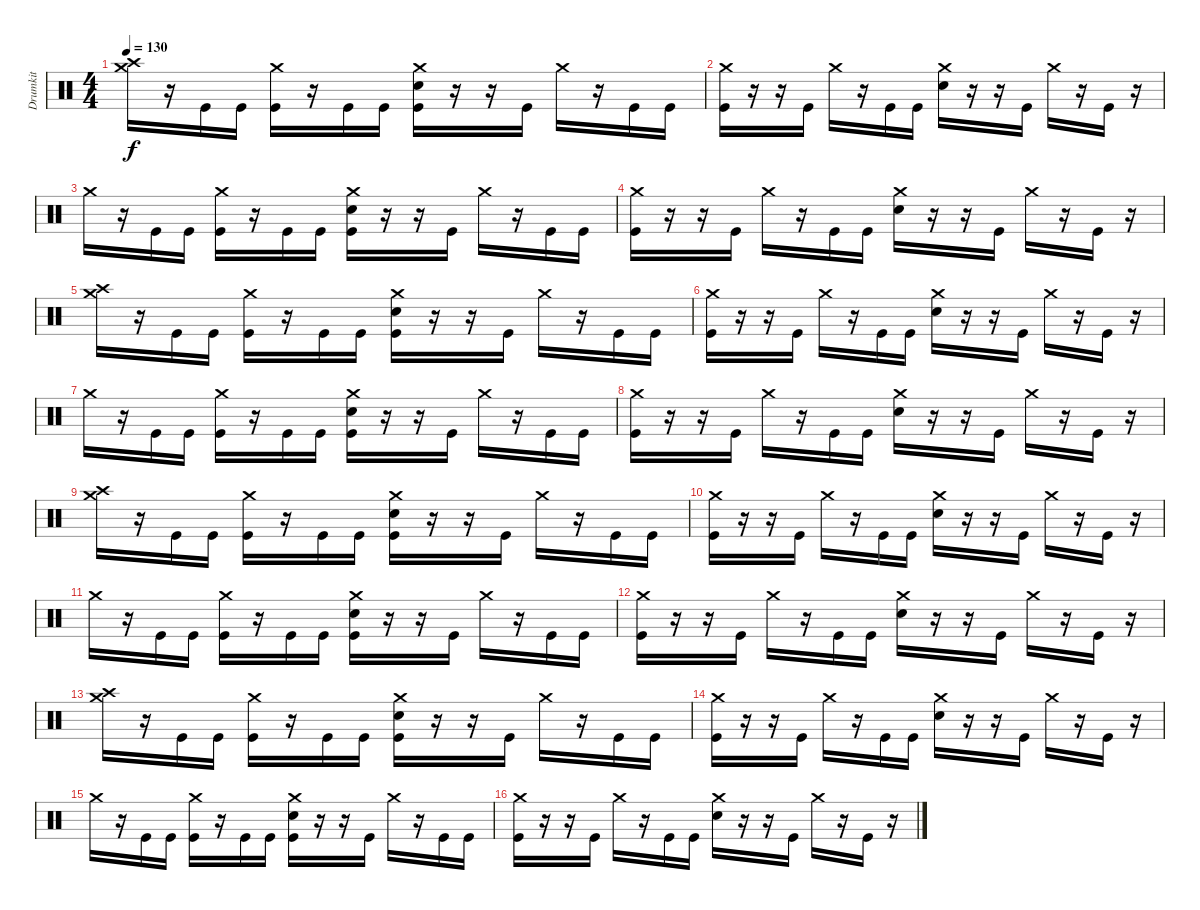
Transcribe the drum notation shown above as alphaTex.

\track ("Drumkit" "Drumkit") {instrument percussion}
\staff {score}
\articulation defaults
\ts (4 4)
\tempo 130
\clef neutral
\ks c
("Crash medium (hit)" "Crash high (hit)").16{dy f} r.16 "Kick (hit)".16 "Kick (hit)".16 ("Crash medium (hit)" "Kick (hit)").16 r.16 "Kick (hit)".16 "Kick (hit)".16 ("Crash medium (hit)" "Snare (hit) 2" "Kick (hit)").16 r.16 r.16 "Kick (hit)".16 "Crash medium (hit)".16 r.16 "Kick (hit)".16 "Kick (hit)".16 |
("Crash medium (hit)" "Kick (hit)").16 r.16 r.16 "Kick (hit)".16 "Crash medium (hit)".16 r.16 "Kick (hit)".16 "Kick (hit)".16 ("Crash medium (hit)" "Snare (hit) 2").16 r.16 r.16 "Kick (hit)".16 "Crash medium (hit)".16 r.16 "Kick (hit)".16 r.16 |
"Crash medium (hit)".16 r.16 "Kick (hit)".16 "Kick (hit)".16 ("Crash medium (hit)" "Kick (hit)").16 r.16 "Kick (hit)".16 "Kick (hit)".16 ("Crash medium (hit)" "Snare (hit) 2" "Kick (hit)").16 r.16 r.16 "Kick (hit)".16 "Crash medium (hit)".16 r.16 "Kick (hit)".16 "Kick (hit)".16 |
("Crash medium (hit)" "Kick (hit)").16 r.16 r.16 "Kick (hit)".16 "Crash medium (hit)".16 r.16 "Kick (hit)".16 "Kick (hit)".16 ("Crash medium (hit)" "Snare (hit) 2").16 r.16 r.16 "Kick (hit)".16 "Crash medium (hit)".16 r.16 "Kick (hit)".16 r.16 |
("Crash medium (hit)" "Crash high (hit)").16 r.16 "Kick (hit)".16 "Kick (hit)".16 ("Crash medium (hit)" "Kick (hit)").16 r.16 "Kick (hit)".16 "Kick (hit)".16 ("Crash medium (hit)" "Snare (hit) 2" "Kick (hit)").16 r.16 r.16 "Kick (hit)".16 "Crash medium (hit)".16 r.16 "Kick (hit)".16 "Kick (hit)".16 |
("Crash medium (hit)" "Kick (hit)").16 r.16 r.16 "Kick (hit)".16 "Crash medium (hit)".16 r.16 "Kick (hit)".16 "Kick (hit)".16 ("Crash medium (hit)" "Snare (hit) 2").16 r.16 r.16 "Kick (hit)".16 "Crash medium (hit)".16 r.16 "Kick (hit)".16 r.16 |
"Crash medium (hit)".16 r.16 "Kick (hit)".16 "Kick (hit)".16 ("Crash medium (hit)" "Kick (hit)").16 r.16 "Kick (hit)".16 "Kick (hit)".16 ("Crash medium (hit)" "Snare (hit) 2" "Kick (hit)").16 r.16 r.16 "Kick (hit)".16 "Crash medium (hit)".16 r.16 "Kick (hit)".16 "Kick (hit)".16 |
("Crash medium (hit)" "Kick (hit)").16 r.16 r.16 "Kick (hit)".16 "Crash medium (hit)".16 r.16 "Kick (hit)".16 "Kick (hit)".16 ("Crash medium (hit)" "Snare (hit) 2").16 r.16 r.16 "Kick (hit)".16 "Crash medium (hit)".16 r.16 "Kick (hit)".16 r.16 |
("Crash medium (hit)" "Crash high (hit)").16 r.16 "Kick (hit)".16 "Kick (hit)".16 ("Crash medium (hit)" "Kick (hit)").16 r.16 "Kick (hit)".16 "Kick (hit)".16 ("Crash medium (hit)" "Snare (hit) 2" "Kick (hit)").16 r.16 r.16 "Kick (hit)".16 "Crash medium (hit)".16 r.16 "Kick (hit)".16 "Kick (hit)".16 |
("Crash medium (hit)" "Kick (hit)").16 r.16 r.16 "Kick (hit)".16 "Crash medium (hit)".16 r.16 "Kick (hit)".16 "Kick (hit)".16 ("Crash medium (hit)" "Snare (hit) 2").16 r.16 r.16 "Kick (hit)".16 "Crash medium (hit)".16 r.16 "Kick (hit)".16 r.16 |
"Crash medium (hit)".16 r.16 "Kick (hit)".16 "Kick (hit)".16 ("Crash medium (hit)" "Kick (hit)").16 r.16 "Kick (hit)".16 "Kick (hit)".16 ("Crash medium (hit)" "Snare (hit) 2" "Kick (hit)").16 r.16 r.16 "Kick (hit)".16 "Crash medium (hit)".16 r.16 "Kick (hit)".16 "Kick (hit)".16 |
("Crash medium (hit)" "Kick (hit)").16 r.16 r.16 "Kick (hit)".16 "Crash medium (hit)".16 r.16 "Kick (hit)".16 "Kick (hit)".16 ("Crash medium (hit)" "Snare (hit) 2").16 r.16 r.16 "Kick (hit)".16 "Crash medium (hit)".16 r.16 "Kick (hit)".16 r.16 |
("Crash medium (hit)" "Crash high (hit)").16 r.16 "Kick (hit)".16 "Kick (hit)".16 ("Crash medium (hit)" "Kick (hit)").16 r.16 "Kick (hit)".16 "Kick (hit)".16 ("Crash medium (hit)" "Snare (hit) 2" "Kick (hit)").16 r.16 r.16 "Kick (hit)".16 "Crash medium (hit)".16 r.16 "Kick (hit)".16 "Kick (hit)".16 |
("Crash medium (hit)" "Kick (hit)").16 r.16 r.16 "Kick (hit)".16 "Crash medium (hit)".16 r.16 "Kick (hit)".16 "Kick (hit)".16 ("Crash medium (hit)" "Snare (hit) 2").16 r.16 r.16 "Kick (hit)".16 "Crash medium (hit)".16 r.16 "Kick (hit)".16 r.16 |
"Crash medium (hit)".16 r.16 "Kick (hit)".16 "Kick (hit)".16 ("Crash medium (hit)" "Kick (hit)").16 r.16 "Kick (hit)".16 "Kick (hit)".16 ("Crash medium (hit)" "Snare (hit) 2" "Kick (hit)").16 r.16 r.16 "Kick (hit)".16 "Crash medium (hit)".16 r.16 "Kick (hit)".16 "Kick (hit)".16 |
("Crash medium (hit)" "Kick (hit)").16 r.16 r.16 "Kick (hit)".16 "Crash medium (hit)".16 r.16 "Kick (hit)".16 "Kick (hit)".16 ("Crash medium (hit)" "Snare (hit) 2").16 r.16 r.16 "Kick (hit)".16 "Crash medium (hit)".16 r.16 "Kick (hit)".16 r.16
